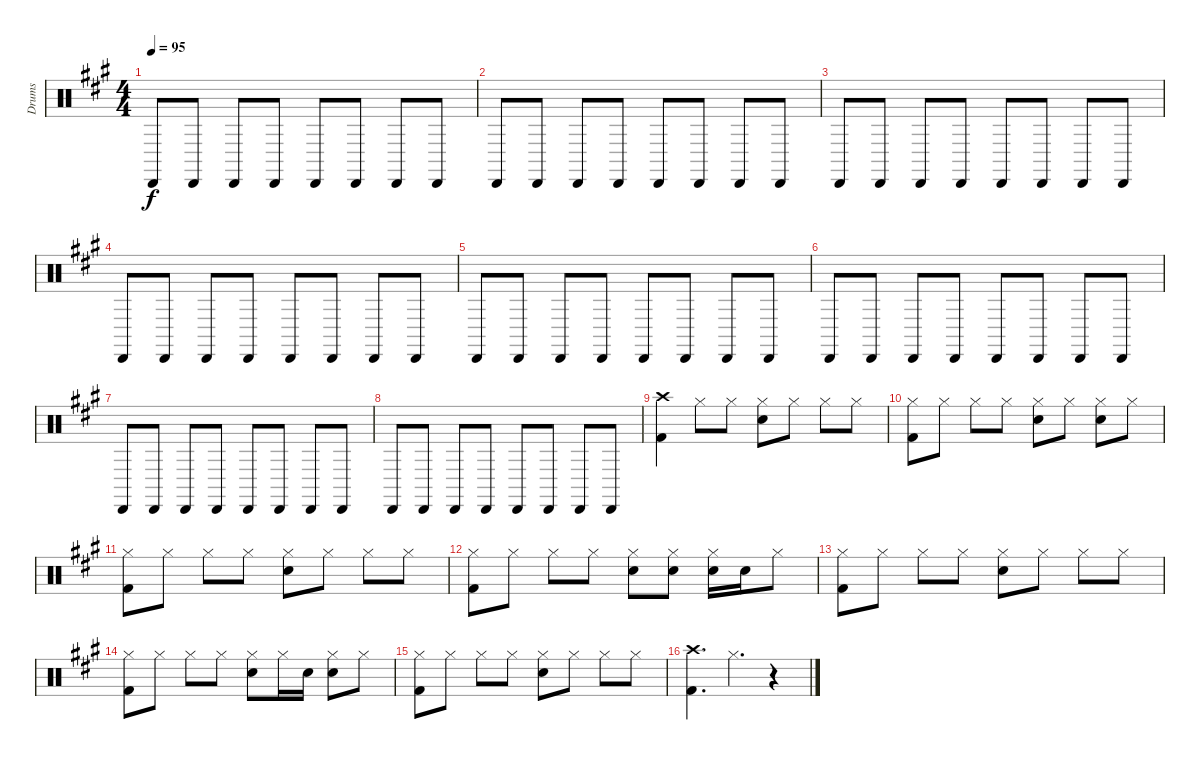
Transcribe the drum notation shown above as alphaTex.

\track ("Drums" "Drums") {instrument percussion}
\staff {score}
\articulation defaults
\ts (4 4)
\tempo 95
\clef neutral
\ks a "Cabasa (hit)".8{dy f} "Cabasa (hit)".8 "Cabasa (hit)".8 "Cabasa (hit)".8 "Cabasa (hit)".8 "Cabasa (hit)".8 "Cabasa (hit)".8 "Cabasa (hit)".8
|
"Cabasa (hit)".8 "Cabasa (hit)".8 "Cabasa (hit)".8 "Cabasa (hit)".8 "Cabasa (hit)".8 "Cabasa (hit)".8 "Cabasa (hit)".8 "Cabasa (hit)".8 |
"Cabasa (hit)".8 "Cabasa (hit)".8 "Cabasa (hit)".8 "Cabasa (hit)".8 "Cabasa (hit)".8 "Cabasa (hit)".8 "Cabasa (hit)".8 "Cabasa (hit)".8 |
"Cabasa (hit)".8 "Cabasa (hit)".8 "Cabasa (hit)".8 "Cabasa (hit)".8 "Cabasa (hit)".8 "Cabasa (hit)".8 "Cabasa (hit)".8 "Cabasa (hit)".8 |
"Cabasa (hit)".8 "Cabasa (hit)".8 "Cabasa (hit)".8 "Cabasa (hit)".8 "Cabasa (hit)".8 "Cabasa (hit)".8 "Cabasa (hit)".8 "Cabasa (hit)".8 |
"Cabasa (hit)".8 "Cabasa (hit)".8 "Cabasa (hit)".8 "Cabasa (hit)".8 "Cabasa (hit)".8 "Cabasa (hit)".8 "Cabasa (hit)".8 "Cabasa (hit)".8 |
"Cabasa (hit)".8 "Cabasa (hit)".8 "Cabasa (hit)".8 "Cabasa (hit)".8 "Cabasa (hit)".8 "Cabasa (hit)".8 "Cabasa (hit)".8 "Cabasa (hit)".8 |
"Cabasa (hit)".8 "Cabasa (hit)".8 "Cabasa (hit)".8 "Cabasa (hit)".8 "Cabasa (hit)".8 "Cabasa (hit)".8 "Cabasa (hit)".8 "Cabasa (hit)".8 |
("Crash high (hit)" "Kick (hit) 2").4 "Hi-Hat (closed)".8 "Hi-Hat (closed)".8 ("Hi-Hat (closed)" "Snare (hit) 2").8 "Hi-Hat (closed)".8 "Hi-Hat (closed)".8 "Hi-Hat (closed)".8 |
("Hi-Hat (closed)" "Kick (hit) 2").8 "Hi-Hat (closed)".8 "Hi-Hat (closed)".8 "Hi-Hat (closed)".8 ("Hi-Hat (closed)" "Snare (hit) 2").8 "Hi-Hat (closed)".8 ("Hi-Hat (closed)" "Snare (hit) 2").8 "Hi-Hat (closed)".8 |
("Hi-Hat (closed)" "Kick (hit) 2").8 "Hi-Hat (closed)".8 "Hi-Hat (closed)".8 "Hi-Hat (closed)".8 ("Hi-Hat (closed)" "Snare (hit) 2").8 "Hi-Hat (closed)".8 "Hi-Hat (closed)".8 "Hi-Hat (closed)".8 |
("Hi-Hat (closed)" "Kick (hit) 2").8 "Hi-Hat (closed)".8 "Hi-Hat (closed)".8 "Hi-Hat (closed)".8 ("Hi-Hat (closed)" "Snare (hit) 2").8 ("Hi-Hat (closed)" "Snare (hit) 2").8 ("Hi-Hat (closed)" "Snare (hit) 2").16 "Snare (hit) 2".16 "Hi-Hat (closed)".8 |
("Hi-Hat (closed)" "Kick (hit) 2").8 "Hi-Hat (closed)".8 "Hi-Hat (closed)".8 "Hi-Hat (closed)".8 ("Hi-Hat (closed)" "Snare (hit) 2").8 "Hi-Hat (closed)".8 "Hi-Hat (closed)".8 "Hi-Hat (closed)".8 |
("Hi-Hat (closed)" "Kick (hit) 2").8 "Hi-Hat (closed)".8 "Hi-Hat (closed)".8 "Hi-Hat (closed)".8 ("Hi-Hat (closed)" "Snare (hit) 2").8 "Hi-Hat (closed)".16 "Snare (hit) 2".16 ("Hi-Hat (closed)" "Snare (hit) 2").8 "Hi-Hat (closed)".8 |
("Hi-Hat (closed)" "Kick (hit) 2").8 "Hi-Hat (closed)".8 "Hi-Hat (closed)".8 "Hi-Hat (closed)".8 ("Hi-Hat (closed)" "Snare (hit) 2").8 "Hi-Hat (closed)".8 "Hi-Hat (closed)".8 "Hi-Hat (closed)".8 |
("Crash high (hit)" "Kick (hit) 2").4{d} "Hi-Hat (closed)".4{d} r.4
